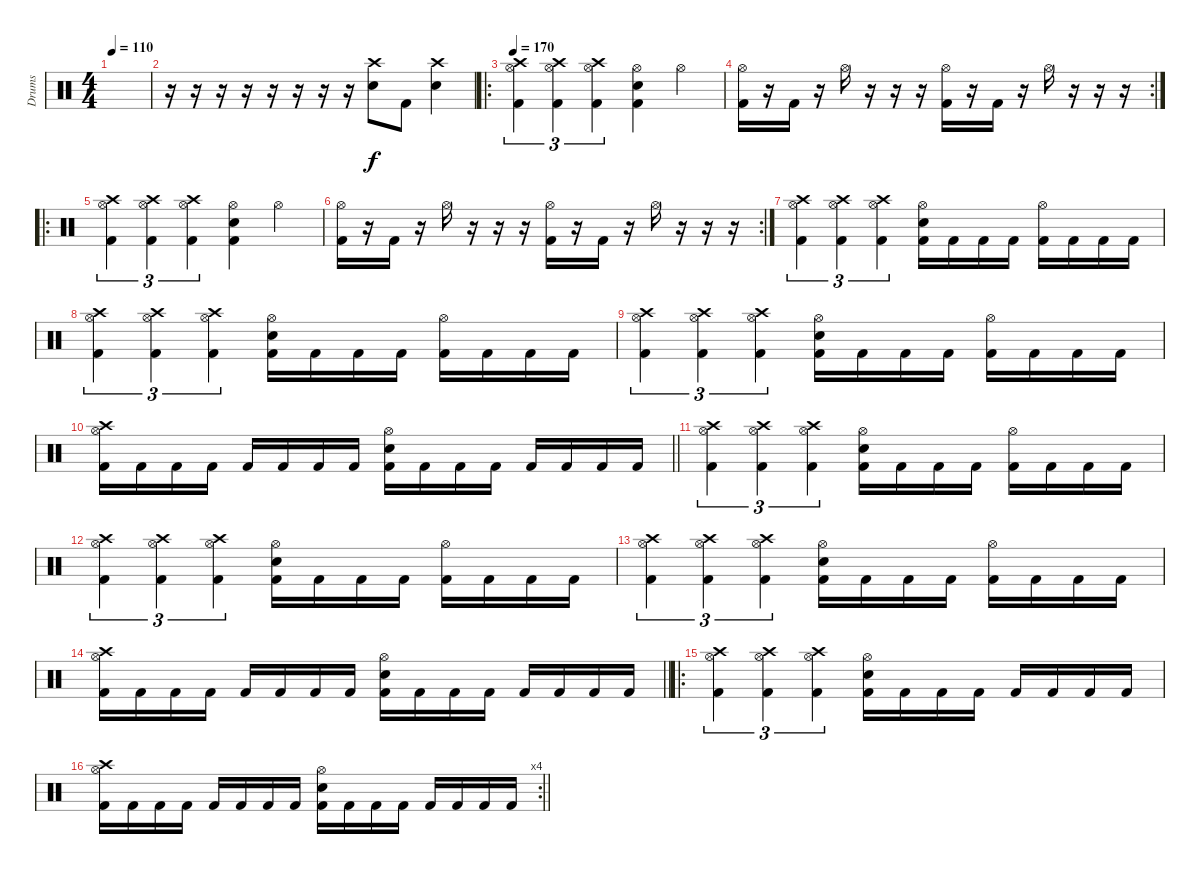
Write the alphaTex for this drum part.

\track ("Drums" "Drums") {instrument percussion}
\staff {score}
\articulation defaults
\ts (4 4)
\tempo 110
\clef neutral
\ks c
|
r.16 r.16 r.16 r.16 r.16 r.16 r.16 r.16 ("Crash high (hit)" "Snare (hit) 2").8 "Kick (hit) 2".8 ("Crash high (hit)" "Snare (hit) 2").4 |
\ro
\tempo 170
("Crash high (hit)" "Hi-Hat (open)" "Kick (hit) 2").4{tu (3 2)} ("Crash high (hit)" "Hi-Hat (open)" "Kick (hit) 2").4{tu (3 2)} ("Crash high (hit)" "Hi-Hat (open)" "Kick (hit) 2").4{tu (3 2)} ("Hi-Hat (open)" "Snare (hit) 2" "Kick (hit) 2").4 "Hi-Hat (open)".4 |
\rc 2
("Hi-Hat (open)" "Kick (hit) 2").16 r.16 "Kick (hit) 2".16 r.16 "Hi-Hat (open)".16 r.16 r.16 r.16 ("Hi-Hat (open)" "Kick (hit) 2").16 r.16 "Kick (hit) 2".16 r.16 "Hi-Hat (open)".16 r.16 r.16 r.16 |
\ro
("Crash high (hit)" "Hi-Hat (open)" "Kick (hit) 2").4{tu (3 2)} ("Crash high (hit)" "Hi-Hat (open)" "Kick (hit) 2").4{tu (3 2)} ("Crash high (hit)" "Hi-Hat (open)" "Kick (hit) 2").4{tu (3 2)} ("Hi-Hat (open)" "Snare (hit) 2" "Kick (hit) 2").4 "Hi-Hat (open)".4 |
\rc 2
("Hi-Hat (open)" "Kick (hit) 2").16 r.16 "Kick (hit) 2".16 r.16 "Hi-Hat (open)".16 r.16 r.16 r.16 ("Hi-Hat (open)" "Kick (hit) 2").16 r.16 "Kick (hit) 2".16 r.16 "Hi-Hat (open)".16 r.16 r.16 r.16 |
("Crash high (hit)" "Hi-Hat (open)" "Kick (hit) 2").4{tu (3 2)} ("Crash high (hit)" "Hi-Hat (open)" "Kick (hit) 2").4{tu (3 2)} ("Crash high (hit)" "Hi-Hat (open)" "Kick (hit) 2").4{tu (3 2)} ("Hi-Hat (open)" "Snare (hit) 2" "Kick (hit) 2").16 "Kick (hit) 2".16 "Kick (hit) 2".16 "Kick (hit) 2".16 ("Hi-Hat (open)" "Kick (hit) 2").16 "Kick (hit) 2".16 "Kick (hit) 2".16 "Kick (hit) 2".16 |
("Crash high (hit)" "Hi-Hat (open)" "Kick (hit) 2").4{tu (3 2)} ("Crash high (hit)" "Hi-Hat (open)" "Kick (hit) 2").4{tu (3 2)} ("Crash high (hit)" "Hi-Hat (open)" "Kick (hit) 2").4{tu (3 2)} ("Hi-Hat (open)" "Snare (hit) 2" "Kick (hit) 2").16 "Kick (hit) 2".16 "Kick (hit) 2".16 "Kick (hit) 2".16 ("Hi-Hat (open)" "Kick (hit) 2").16 "Kick (hit) 2".16 "Kick (hit) 2".16 "Kick (hit) 2".16 |
("Crash high (hit)" "Hi-Hat (open)" "Kick (hit) 2").4{tu (3 2)} ("Crash high (hit)" "Hi-Hat (open)" "Kick (hit) 2").4{tu (3 2)} ("Crash high (hit)" "Hi-Hat (open)" "Kick (hit) 2").4{tu (3 2)} ("Hi-Hat (open)" "Snare (hit) 2" "Kick (hit) 2").16 "Kick (hit) 2".16 "Kick (hit) 2".16 "Kick (hit) 2".16 ("Hi-Hat (open)" "Kick (hit) 2").16 "Kick (hit) 2".16 "Kick (hit) 2".16 "Kick (hit) 2".16 |
\barLineRight lightlight
("Crash high (hit)" "Hi-Hat (open)" "Kick (hit) 2").16 "Kick (hit) 2".16 "Kick (hit) 2".16 "Kick (hit) 2".16 "Kick (hit) 2".16 "Kick (hit) 2".16 "Kick (hit) 2".16 "Kick (hit) 2".16 ("Hi-Hat (open)" "Snare (hit) 2" "Kick (hit) 2").16 "Kick (hit) 2".16 "Kick (hit) 2".16 "Kick (hit) 2".16 "Kick (hit) 2".16 "Kick (hit) 2".16 "Kick (hit) 2".16 "Kick (hit) 2".16 |
("Crash high (hit)" "Hi-Hat (open)" "Kick (hit) 2").4{tu (3 2)} ("Crash high (hit)" "Hi-Hat (open)" "Kick (hit) 2").4{tu (3 2)} ("Crash high (hit)" "Hi-Hat (open)" "Kick (hit) 2").4{tu (3 2)} ("Hi-Hat (open)" "Snare (hit) 2" "Kick (hit) 2").16 "Kick (hit) 2".16 "Kick (hit) 2".16 "Kick (hit) 2".16 ("Hi-Hat (open)" "Kick (hit) 2").16 "Kick (hit) 2".16 "Kick (hit) 2".16 "Kick (hit) 2".16 |
("Crash high (hit)" "Hi-Hat (open)" "Kick (hit) 2").4{tu (3 2)} ("Crash high (hit)" "Hi-Hat (open)" "Kick (hit) 2").4{tu (3 2)} ("Crash high (hit)" "Hi-Hat (open)" "Kick (hit) 2").4{tu (3 2)} ("Hi-Hat (open)" "Snare (hit) 2" "Kick (hit) 2").16 "Kick (hit) 2".16 "Kick (hit) 2".16 "Kick (hit) 2".16 ("Hi-Hat (open)" "Kick (hit) 2").16 "Kick (hit) 2".16 "Kick (hit) 2".16 "Kick (hit) 2".16 |
("Crash high (hit)" "Hi-Hat (open)" "Kick (hit) 2").4{tu (3 2)} ("Crash high (hit)" "Hi-Hat (open)" "Kick (hit) 2").4{tu (3 2)} ("Crash high (hit)" "Hi-Hat (open)" "Kick (hit) 2").4{tu (3 2)} ("Hi-Hat (open)" "Snare (hit) 2" "Kick (hit) 2").16 "Kick (hit) 2".16 "Kick (hit) 2".16 "Kick (hit) 2".16 ("Hi-Hat (open)" "Kick (hit) 2").16 "Kick (hit) 2".16 "Kick (hit) 2".16 "Kick (hit) 2".16 |
\barLineRight lightlight
("Crash high (hit)" "Hi-Hat (open)" "Kick (hit) 2").16 "Kick (hit) 2".16 "Kick (hit) 2".16 "Kick (hit) 2".16 "Kick (hit) 2".16 "Kick (hit) 2".16 "Kick (hit) 2".16 "Kick (hit) 2".16 ("Hi-Hat (open)" "Snare (hit) 2" "Kick (hit) 2").16 "Kick (hit) 2".16 "Kick (hit) 2".16 "Kick (hit) 2".16 "Kick (hit) 2".16 "Kick (hit) 2".16 "Kick (hit) 2".16 "Kick (hit) 2".16 |
\ro
("Crash high (hit)" "Hi-Hat (open)" "Kick (hit) 2").4{tu (3 2)} ("Crash high (hit)" "Hi-Hat (open)" "Kick (hit) 2").4{tu (3 2)} ("Crash high (hit)" "Hi-Hat (open)" "Kick (hit) 2").4{tu (3 2)} ("Hi-Hat (open)" "Snare (hit) 2" "Kick (hit) 2").16 "Kick (hit) 2".16 "Kick (hit) 2".16 "Kick (hit) 2".16 "Kick (hit) 2".16 "Kick (hit) 2".16 "Kick (hit) 2".16 "Kick (hit) 2".16 |
\rc 4
\barLineRight lightlight
("Crash high (hit)" "Hi-Hat (open)" "Kick (hit) 2").16 "Kick (hit) 2".16 "Kick (hit) 2".16 "Kick (hit) 2".16 "Kick (hit) 2".16 "Kick (hit) 2".16 "Kick (hit) 2".16 "Kick (hit) 2".16 ("Hi-Hat (open)" "Snare (hit) 2" "Kick (hit) 2").16 "Kick (hit) 2".16 "Kick (hit) 2".16 "Kick (hit) 2".16 "Kick (hit) 2".16 "Kick (hit) 2".16 "Kick (hit) 2".16 "Kick (hit) 2".16
